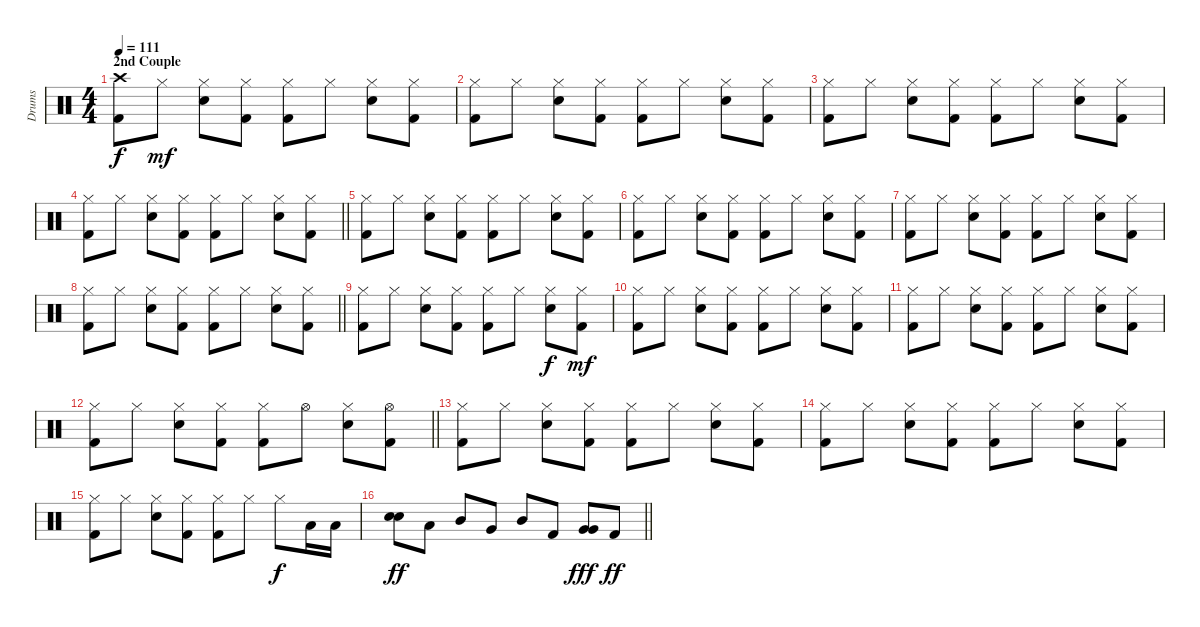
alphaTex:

\track ("Drums" "Drums") {instrument percussion}
\staff {score}
\articulation defaults
\ts (4 4)
\section ("" "2nd Couple")
\tempo 111
\clef neutral
\ks c
("Crash high (hit)" "Kick (hit) 2").8{dy f} "Hi-Hat (closed)".8{dy mf} ("Hi-Hat (closed)" "Electric Snare (hit)").8 ("Hi-Hat (closed)" "Kick (hit) 2").8 ("Hi-Hat (closed)" "Kick (hit) 2").8 "Hi-Hat (closed)".8 ("Hi-Hat (closed)" "Electric Snare (hit)").8 ("Hi-Hat (closed)" "Kick (hit) 2").8 |
("Hi-Hat (closed)" "Kick (hit) 2").8 "Hi-Hat (closed)".8 ("Hi-Hat (closed)" "Electric Snare (hit)").8 ("Hi-Hat (closed)" "Kick (hit) 2").8 ("Hi-Hat (closed)" "Kick (hit) 2").8 "Hi-Hat (closed)".8 ("Hi-Hat (closed)" "Electric Snare (hit)").8 ("Hi-Hat (closed)" "Kick (hit) 2").8 |
("Hi-Hat (closed)" "Kick (hit) 2").8 "Hi-Hat (closed)".8 ("Hi-Hat (closed)" "Electric Snare (hit)").8 ("Hi-Hat (closed)" "Kick (hit) 2").8 ("Hi-Hat (closed)" "Kick (hit) 2").8 "Hi-Hat (closed)".8 ("Hi-Hat (closed)" "Electric Snare (hit)").8 ("Hi-Hat (closed)" "Kick (hit) 2").8 |
\barLineRight lightlight
("Hi-Hat (closed)" "Kick (hit) 2").8 "Hi-Hat (closed)".8 ("Hi-Hat (closed)" "Electric Snare (hit)").8 ("Hi-Hat (closed)" "Kick (hit) 2").8 ("Hi-Hat (closed)" "Kick (hit) 2").8 "Hi-Hat (closed)".8 ("Hi-Hat (closed)" "Electric Snare (hit)").8 ("Hi-Hat (closed)" "Kick (hit) 2").8 |
("Hi-Hat (closed)" "Kick (hit) 2").8 "Hi-Hat (closed)".8 ("Hi-Hat (closed)" "Electric Snare (hit)").8 ("Hi-Hat (closed)" "Kick (hit) 2").8 ("Hi-Hat (closed)" "Kick (hit) 2").8 "Hi-Hat (closed)".8 ("Hi-Hat (closed)" "Electric Snare (hit)").8 ("Hi-Hat (closed)" "Kick (hit) 2").8 |
("Hi-Hat (closed)" "Kick (hit) 2").8 "Hi-Hat (closed)".8 ("Hi-Hat (closed)" "Electric Snare (hit)").8 ("Hi-Hat (closed)" "Kick (hit) 2").8 ("Hi-Hat (closed)" "Kick (hit) 2").8 "Hi-Hat (closed)".8 ("Hi-Hat (closed)" "Electric Snare (hit)").8 ("Hi-Hat (closed)" "Kick (hit) 2").8 |
("Hi-Hat (closed)" "Kick (hit) 2").8 "Hi-Hat (closed)".8 ("Hi-Hat (closed)" "Electric Snare (hit)").8 ("Hi-Hat (closed)" "Kick (hit) 2").8 ("Hi-Hat (closed)" "Kick (hit) 2").8 "Hi-Hat (closed)".8 ("Hi-Hat (closed)" "Electric Snare (hit)").8 ("Hi-Hat (closed)" "Kick (hit) 2").8 |
\barLineRight lightlight
("Hi-Hat (closed)" "Kick (hit) 2").8 "Hi-Hat (closed)".8 ("Hi-Hat (closed)" "Electric Snare (hit)").8 ("Hi-Hat (closed)" "Kick (hit) 2").8 ("Hi-Hat (closed)" "Kick (hit) 2").8 "Hi-Hat (closed)".8 ("Hi-Hat (closed)" "Electric Snare (hit)").8 ("Hi-Hat (closed)" "Kick (hit) 2").8 |
("Hi-Hat (closed)" "Kick (hit) 2").8 "Hi-Hat (closed)".8 ("Hi-Hat (closed)" "Electric Snare (hit)").8 ("Hi-Hat (closed)" "Kick (hit) 2").8 ("Hi-Hat (closed)" "Kick (hit) 2").8 "Hi-Hat (closed)".8 ("Hi-Hat (closed)" "Electric Snare (hit)").8{dy f} ("Hi-Hat (closed)" "Kick (hit) 2").8{dy mf} |
("Hi-Hat (closed)" "Kick (hit) 2").8 "Hi-Hat (closed)".8 ("Hi-Hat (closed)" "Electric Snare (hit)").8 ("Hi-Hat (closed)" "Kick (hit) 2").8 ("Hi-Hat (closed)" "Kick (hit) 2").8 "Hi-Hat (closed)".8 ("Hi-Hat (closed)" "Electric Snare (hit)").8 ("Hi-Hat (closed)" "Kick (hit) 2").8 |
("Hi-Hat (closed)" "Kick (hit) 2").8 "Hi-Hat (closed)".8 ("Hi-Hat (closed)" "Electric Snare (hit)").8 ("Hi-Hat (closed)" "Kick (hit) 2").8 ("Hi-Hat (closed)" "Kick (hit) 2").8 "Hi-Hat (closed)".8 ("Hi-Hat (closed)" "Electric Snare (hit)").8 ("Hi-Hat (closed)" "Kick (hit) 2").8 |
\barLineRight lightlight
("Hi-Hat (closed)" "Kick (hit) 2").8 "Hi-Hat (closed)".8 ("Hi-Hat (closed)" "Electric Snare (hit)").8 ("Hi-Hat (closed)" "Kick (hit) 2").8 ("Hi-Hat (closed)" "Kick (hit) 2").8 "Hi-Hat (open)".8 ("Hi-Hat (closed)" "Electric Snare (hit)").8 ("Hi-Hat (open)" "Kick (hit) 2").8 |
("Hi-Hat (closed)" "Kick (hit) 2").8 "Hi-Hat (closed)".8 ("Hi-Hat (closed)" "Electric Snare (hit)").8 ("Hi-Hat (closed)" "Kick (hit) 2").8 ("Hi-Hat (closed)" "Kick (hit) 2").8 "Hi-Hat (closed)".8 ("Hi-Hat (closed)" "Electric Snare (hit)").8 ("Hi-Hat (closed)" "Kick (hit) 2").8 |
("Hi-Hat (closed)" "Kick (hit) 2").8 "Hi-Hat (closed)".8 ("Hi-Hat (closed)" "Electric Snare (hit)").8 ("Hi-Hat (closed)" "Kick (hit) 2").8 ("Hi-Hat (closed)" "Kick (hit) 2").8 "Hi-Hat (closed)".8 ("Hi-Hat (closed)" "Electric Snare (hit)").8 ("Hi-Hat (closed)" "Kick (hit) 2").8 |
("Hi-Hat (closed)" "Kick (hit) 2").8 "Hi-Hat (closed)".8 ("Hi-Hat (closed)" "Electric Snare (hit)").8 ("Hi-Hat (closed)" "Kick (hit) 2").8 ("Hi-Hat (closed)" "Kick (hit) 2").8 "Hi-Hat (closed)".8 "Hi-Hat (closed)".8{dy f} "Low Tom (hit)".16 "Low Tom (hit)".16 |
\barLineRight lightlight
("Electric Snare (hit)" "Electric Snare (hit)").8{bd 60 dy ff} "Low Tom (hit)".8 "Mid Tom (hit)".8 "Very Low Tom (hit)".8 "Mid Tom (hit)".8 "Kick (hit) 2".8 ("Very Low Tom (hit)" "Very Low Tom (hit)").8{bd 60 dy fff} "Kick (hit) 2".8{dy ff}
